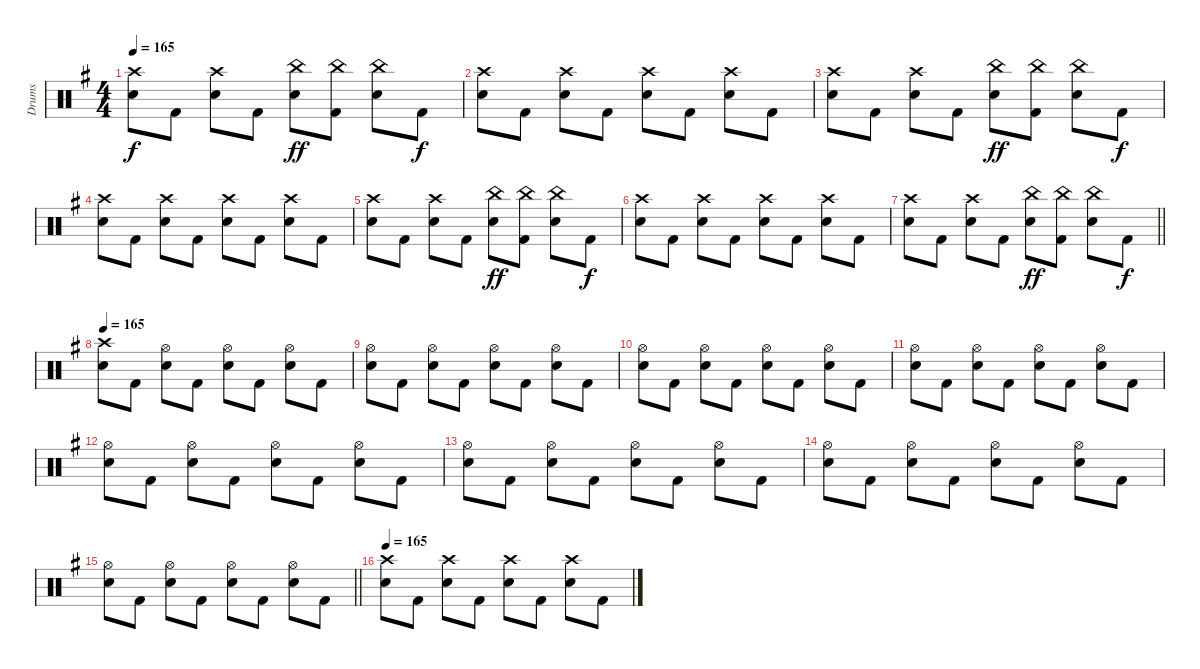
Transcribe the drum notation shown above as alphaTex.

\track ("Drums" "Drums") {instrument percussion}
\staff {score}
\articulation defaults
\ts (4 4)
\tempo 165
\clef neutral
\ks eminor
("Crash high (hit)" "Snare (hit) 2").8{dy f} "Kick (hit) 2".8 ("Crash high (hit)" "Snare (hit) 2").8 "Kick (hit) 2".8 ("China (hit)" "Snare (hit) 2").8{dy ff} ("China (hit)" "Kick (hit) 2").8 ("China (hit)" "Snare (hit) 2").8 "Kick (hit) 2".8{dy f} |
("Crash high (hit)" "Snare (hit) 2").8 "Kick (hit) 2".8 ("Crash high (hit)" "Snare (hit) 2").8 "Kick (hit) 2".8 ("Crash high (hit)" "Snare (hit) 2").8 "Kick (hit) 2".8 ("Crash high (hit)" "Snare (hit) 2").8 "Kick (hit) 2".8 |
("Crash high (hit)" "Snare (hit) 2").8 "Kick (hit) 2".8 ("Crash high (hit)" "Snare (hit) 2").8 "Kick (hit) 2".8 ("China (hit)" "Snare (hit) 2").8{dy ff} ("China (hit)" "Kick (hit) 2").8 ("China (hit)" "Snare (hit) 2").8 "Kick (hit) 2".8{dy f} |
("Crash high (hit)" "Snare (hit) 2").8 "Kick (hit) 2".8 ("Crash high (hit)" "Snare (hit) 2").8 "Kick (hit) 2".8 ("Crash high (hit)" "Snare (hit) 2").8 "Kick (hit) 2".8 ("Crash high (hit)" "Snare (hit) 2").8 "Kick (hit) 2".8 |
("Crash high (hit)" "Snare (hit) 2").8 "Kick (hit) 2".8 ("Crash high (hit)" "Snare (hit) 2").8 "Kick (hit) 2".8 ("China (hit)" "Snare (hit) 2").8{dy ff} ("China (hit)" "Kick (hit) 2").8 ("China (hit)" "Snare (hit) 2").8 "Kick (hit) 2".8{dy f} |
("Crash high (hit)" "Snare (hit) 2").8 "Kick (hit) 2".8 ("Crash high (hit)" "Snare (hit) 2").8 "Kick (hit) 2".8 ("Crash high (hit)" "Snare (hit) 2").8 "Kick (hit) 2".8 ("Crash high (hit)" "Snare (hit) 2").8 "Kick (hit) 2".8 |
\barLineRight lightlight
("Crash high (hit)" "Snare (hit) 2").8 "Kick (hit) 2".8 ("Crash high (hit)" "Snare (hit) 2").8 "Kick (hit) 2".8 ("China (hit)" "Snare (hit) 2").8{dy ff} ("China (hit)" "Kick (hit) 2").8 ("China (hit)" "Snare (hit) 2").8 "Kick (hit) 2".8{dy f} |
\tempo 165
("Crash high (hit)" "Snare (hit) 2").8 "Kick (hit) 2".8 ("Hi-Hat (open)" "Snare (hit) 2").8 "Kick (hit) 2".8 ("Hi-Hat (open)" "Snare (hit) 2").8 "Kick (hit) 2".8 ("Hi-Hat (open)" "Snare (hit) 2").8 "Kick (hit) 2".8 |
("Hi-Hat (open)" "Snare (hit) 2").8 "Kick (hit) 2".8 ("Hi-Hat (open)" "Snare (hit) 2").8 "Kick (hit) 2".8 ("Hi-Hat (open)" "Snare (hit) 2").8 "Kick (hit) 2".8 ("Hi-Hat (open)" "Snare (hit) 2").8 "Kick (hit) 2".8 |
("Hi-Hat (open)" "Snare (hit) 2").8 "Kick (hit) 2".8 ("Hi-Hat (open)" "Snare (hit) 2").8 "Kick (hit) 2".8 ("Hi-Hat (open)" "Snare (hit) 2").8 "Kick (hit) 2".8 ("Hi-Hat (open)" "Snare (hit) 2").8 "Kick (hit) 2".8 |
("Hi-Hat (open)" "Snare (hit) 2").8 "Kick (hit) 2".8 ("Hi-Hat (open)" "Snare (hit) 2").8 "Kick (hit) 2".8 ("Hi-Hat (open)" "Snare (hit) 2").8 "Kick (hit) 2".8 ("Hi-Hat (open)" "Snare (hit) 2").8 "Kick (hit) 2".8 |
("Hi-Hat (open)" "Snare (hit) 2").8 "Kick (hit) 2".8 ("Hi-Hat (open)" "Snare (hit) 2").8 "Kick (hit) 2".8 ("Hi-Hat (open)" "Snare (hit) 2").8 "Kick (hit) 2".8 ("Hi-Hat (open)" "Snare (hit) 2").8 "Kick (hit) 2".8 |
("Hi-Hat (open)" "Snare (hit) 2").8 "Kick (hit) 2".8 ("Hi-Hat (open)" "Snare (hit) 2").8 "Kick (hit) 2".8 ("Hi-Hat (open)" "Snare (hit) 2").8 "Kick (hit) 2".8 ("Hi-Hat (open)" "Snare (hit) 2").8 "Kick (hit) 2".8 |
("Hi-Hat (open)" "Snare (hit) 2").8 "Kick (hit) 2".8 ("Hi-Hat (open)" "Snare (hit) 2").8 "Kick (hit) 2".8 ("Hi-Hat (open)" "Snare (hit) 2").8 "Kick (hit) 2".8 ("Hi-Hat (open)" "Snare (hit) 2").8 "Kick (hit) 2".8 |
\barLineRight lightlight
("Hi-Hat (open)" "Snare (hit) 2").8 "Kick (hit) 2".8 ("Hi-Hat (open)" "Snare (hit) 2").8 "Kick (hit) 2".8 ("Hi-Hat (open)" "Snare (hit) 2").8 "Kick (hit) 2".8 ("Hi-Hat (open)" "Snare (hit) 2").8 "Kick (hit) 2".8 |
\tempo 165
("Crash high (hit)" "Snare (hit) 2").8 "Kick (hit) 2".8 ("Crash high (hit)" "Snare (hit) 2").8 "Kick (hit) 2".8 ("Crash high (hit)" "Snare (hit) 2").8 "Kick (hit) 2".8 ("Crash high (hit)" "Snare (hit) 2").8 "Kick (hit) 2".8
